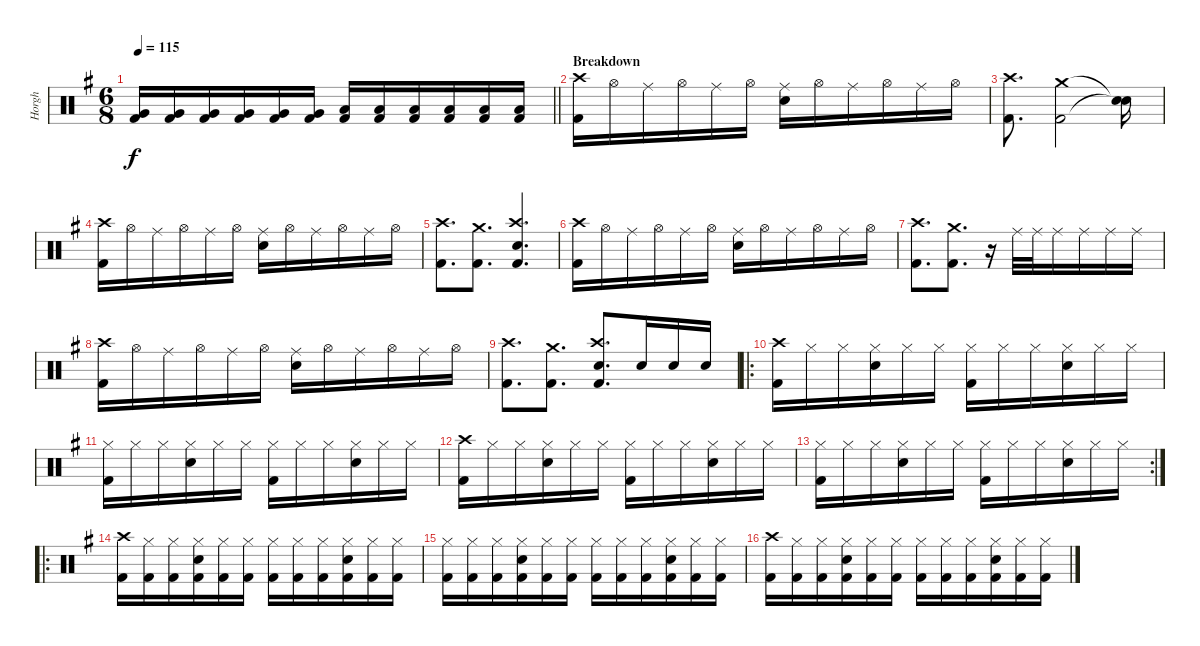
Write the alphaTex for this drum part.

\track ("Horgh" "Horgh") {instrument percussion}
\staff {score}
\articulation defaults
\ts (6 8)
\tempo 115
\clef neutral
\barLineRight lightlight
\ks g
("Very Low Tom (hit)" "Kick (hit) 2").16{dy f} ("Very Low Tom (hit)" "Kick (hit) 2").16 ("Very Low Tom (hit)" "Kick (hit) 2").16 ("Very Low Tom (hit)" "Kick (hit) 2").16 ("Very Low Tom (hit)" "Kick (hit) 2").16 ("Very Low Tom (hit)" "Kick (hit) 2").16 ("Low Floor Tom (hit)" "Kick (hit) 2").16 ("Low Floor Tom (hit)" "Kick (hit) 2").16 ("Low Floor Tom (hit)" "Kick (hit) 2").16 ("Low Floor Tom (hit)" "Kick (hit) 2").16 ("Low Floor Tom (hit)" "Kick (hit) 2").16 ("Low Floor Tom (hit)" "Kick (hit) 2").16 |
\section ("" "Breakdown")
("Crash high (hit)" "Kick (hit) 2").16 "Hi-Hat (open)".16 "Ride (middle)".16 "Hi-Hat (open)".16 "Ride (middle)".16 "Hi-Hat (open)".16 ("Ride (middle)" "Electric Snare (hit)").16 "Hi-Hat (open)".16 "Ride (middle)".16 "Hi-Hat (open)".16 "Ride (middle)".16 "Hi-Hat (open)".16 |
("Crash high (hit)" "Kick (hit) 2").8{d} ("Crash medium (hit)" "Kick (hit) 2").2 ("Snare (hit)"{t} "Snare (hit)"{t}).16 |
("Crash high (hit)" "Kick (hit) 2").16 "Hi-Hat (open)".16 "Ride (middle)".16 "Hi-Hat (open)".16 "Ride (middle)".16 "Hi-Hat (open)".16 ("Ride (middle)" "Electric Snare (hit)").16 "Hi-Hat (open)".16 "Ride (middle)".16 "Hi-Hat (open)".16 "Ride (middle)".16 "Hi-Hat (open)".16 |
("Crash high (hit)" "Kick (hit) 2").8{d} ("Crash medium (hit)" "Kick (hit) 2").8{d} ("Crash high (hit)" "Electric Snare (hit)" "Kick (hit) 2").4{d} |
("Crash high (hit)" "Kick (hit) 2").16 "Hi-Hat (open)".16 "Ride (middle)".16 "Hi-Hat (open)".16 "Ride (middle)".16 "Hi-Hat (open)".16 ("Ride (middle)" "Electric Snare (hit)").16 "Hi-Hat (open)".16 "Ride (middle)".16 "Hi-Hat (open)".16 "Ride (middle)".16 "Hi-Hat (open)".16 |
("Crash high (hit)" "Kick (hit) 2").8{d} ("Crash medium (hit)" "Kick (hit) 2").8{d} r.16 "Ride (middle)".32 "Ride (middle)".32 "Ride (middle)".16 "Ride (middle)".16 "Ride (middle)".16 "Ride (middle)".16 |
("Crash high (hit)" "Kick (hit) 2").16 "Hi-Hat (open)".16 "Ride (middle)".16 "Hi-Hat (open)".16 "Ride (middle)".16 "Hi-Hat (open)".16 ("Ride (middle)" "Electric Snare (hit)").16 "Hi-Hat (open)".16 "Ride (middle)".16 "Hi-Hat (open)".16 "Ride (middle)".16 "Hi-Hat (open)".16 |
("Crash high (hit)" "Kick (hit) 2").8{d} ("Crash medium (hit)" "Kick (hit) 2").8{d} ("Crash high (hit)" "Electric Snare (hit)" "Kick (hit) 2").8{d} "Electric Snare (hit)".16 "Electric Snare (hit)".16 "Electric Snare (hit)".16 |
\ro
("Crash high (hit)" "Kick (hit) 2").16 "Hi-Hat (closed)".16 "Hi-Hat (closed)".16 ("Hi-Hat (closed)" "Electric Snare (hit)").16 "Hi-Hat (closed)".16 "Hi-Hat (closed)".16 ("Hi-Hat (closed)" "Kick (hit) 2").16 "Hi-Hat (closed)".16 "Hi-Hat (closed)".16 ("Hi-Hat (closed)" "Electric Snare (hit)").16 "Hi-Hat (closed)".16 "Hi-Hat (closed)".16 |
("Hi-Hat (closed)" "Kick (hit) 2").16 "Hi-Hat (closed)".16 "Hi-Hat (closed)".16 ("Hi-Hat (closed)" "Electric Snare (hit)").16 "Hi-Hat (closed)".16 "Hi-Hat (closed)".16 ("Hi-Hat (closed)" "Kick (hit) 2").16 "Hi-Hat (closed)".16 "Hi-Hat (closed)".16 ("Hi-Hat (closed)" "Electric Snare (hit)").16 "Hi-Hat (closed)".16 "Hi-Hat (closed)".16 |
("Crash high (hit)" "Kick (hit) 2").16 "Hi-Hat (closed)".16 "Hi-Hat (closed)".16 ("Hi-Hat (closed)" "Electric Snare (hit)").16 "Hi-Hat (closed)".16 "Hi-Hat (closed)".16 ("Hi-Hat (closed)" "Kick (hit) 2").16 "Hi-Hat (closed)".16 "Hi-Hat (closed)".16 ("Hi-Hat (closed)" "Electric Snare (hit)").16 "Hi-Hat (closed)".16 "Hi-Hat (closed)".16 |
\rc 2
("Hi-Hat (closed)" "Kick (hit) 2").16 "Hi-Hat (closed)".16 "Hi-Hat (closed)".16 ("Hi-Hat (closed)" "Electric Snare (hit)").16 "Hi-Hat (closed)".16 "Hi-Hat (closed)".16 ("Hi-Hat (closed)" "Kick (hit) 2").16 "Hi-Hat (closed)".16 "Hi-Hat (closed)".16 ("Hi-Hat (closed)" "Electric Snare (hit)").16 "Hi-Hat (closed)".16 "Hi-Hat (closed)".16 |
\ro
("Crash high (hit)" "Kick (hit) 2").16 ("Hi-Hat (closed)" "Kick (hit) 2").16 ("Hi-Hat (closed)" "Kick (hit) 2").16 ("Hi-Hat (closed)" "Electric Snare (hit)" "Kick (hit) 2").16 ("Hi-Hat (closed)" "Kick (hit) 2").16 ("Hi-Hat (closed)" "Kick (hit) 2").16 ("Hi-Hat (closed)" "Kick (hit) 2").16 ("Hi-Hat (closed)" "Kick (hit) 2").16 ("Hi-Hat (closed)" "Kick (hit) 2").16 ("Hi-Hat (closed)" "Electric Snare (hit)" "Kick (hit) 2").16 ("Hi-Hat (closed)" "Kick (hit) 2").16 ("Hi-Hat (closed)" "Kick (hit) 2").16 |
("Hi-Hat (closed)" "Kick (hit) 2").16 ("Hi-Hat (closed)" "Kick (hit) 2").16 ("Hi-Hat (closed)" "Kick (hit) 2").16 ("Hi-Hat (closed)" "Electric Snare (hit)" "Kick (hit) 2").16 ("Hi-Hat (closed)" "Kick (hit) 2").16 ("Hi-Hat (closed)" "Kick (hit) 2").16 ("Hi-Hat (closed)" "Kick (hit) 2").16 ("Hi-Hat (closed)" "Kick (hit) 2").16 ("Hi-Hat (closed)" "Kick (hit) 2").16 ("Hi-Hat (closed)" "Electric Snare (hit)" "Kick (hit) 2").16 ("Hi-Hat (closed)" "Kick (hit) 2").16 ("Hi-Hat (closed)" "Kick (hit) 2").16 |
("Crash high (hit)" "Kick (hit) 2").16 ("Hi-Hat (closed)" "Kick (hit) 2").16 ("Hi-Hat (closed)" "Kick (hit) 2").16 ("Hi-Hat (closed)" "Electric Snare (hit)" "Kick (hit) 2").16 ("Hi-Hat (closed)" "Kick (hit) 2").16 ("Hi-Hat (closed)" "Kick (hit) 2").16 ("Hi-Hat (closed)" "Kick (hit) 2").16 ("Hi-Hat (closed)" "Kick (hit) 2").16 ("Hi-Hat (closed)" "Kick (hit) 2").16 ("Hi-Hat (closed)" "Electric Snare (hit)" "Kick (hit) 2").16 ("Hi-Hat (closed)" "Kick (hit) 2").16 ("Hi-Hat (closed)" "Kick (hit) 2").16
